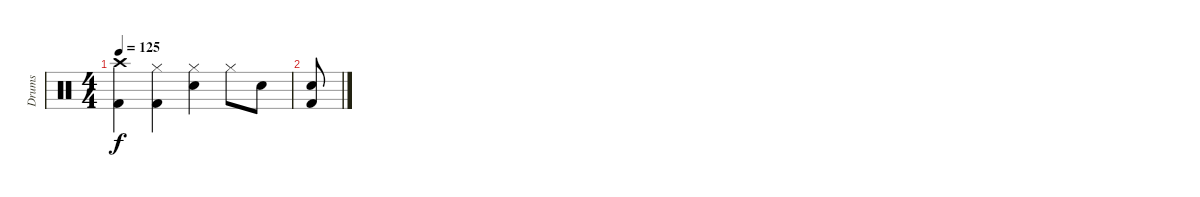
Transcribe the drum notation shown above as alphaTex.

\track ("Drums" "Drums") {instrument percussion}
\staff {score}
\articulation defaults
\ts (4 4)
\tempo 125
\clef neutral
\ks c
("Kick (hit) 2" "Crash high (hit)").4{dy f} ("Kick (hit) 2" "Hi-Hat (closed)").4 ("Electric Snare (hit)" "Hi-Hat (closed)").4 "Hi-Hat (closed)".8 "Electric Snare (hit)".8 |
("Kick (hit) 2" "Electric Snare (hit)").8
